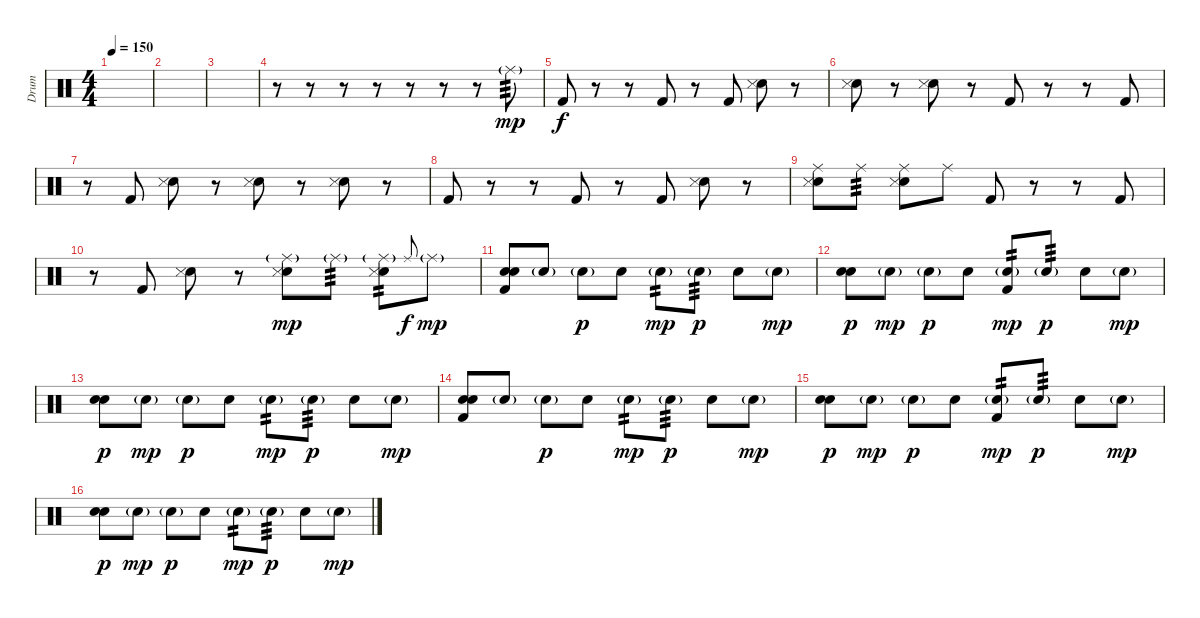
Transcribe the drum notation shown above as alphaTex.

\track ("Drum" "Drum") {instrument percussion}
\staff {score}
\articulation defaults
\ts (4 4)
\tempo 150
\clef neutral
\ks c
|
|
|
r.8 r.8 r.8 r.8 r.8 r.8 r.8 "Ride (middle)"{g}.8{tp 3 dy mp} |
"Kick (hit) 2".8{dy f} r.8 r.8 "Kick (hit) 2".8 r.8 "Kick (hit) 2".8 ("Hand Clap (hit)" "Snare (side stick) 3").8 r.8 |
("Hand Clap (hit)" "Snare (side stick) 3").8 r.8 ("Hand Clap (hit)" "Snare (side stick) 3").8 r.8 "Kick (hit) 2".8 r.8 r.8 "Kick (hit) 2".8 |
r.8 "Kick (hit) 2".8 ("Hand Clap (hit)" "Snare (side stick) 3").8 r.8 ("Hand Clap (hit)" "Snare (side stick) 3").8 r.8 ("Hand Clap (hit)" "Snare (side stick) 3").8 r.8 |
"Kick (hit) 2".8 r.8 r.8 "Kick (hit) 2".8 r.8 "Kick (hit) 2".8 ("Hand Clap (hit)" "Snare (side stick) 3").8 r.8 |
("Hand Clap (hit)" "Snare (side stick) 3" "Ride (middle)").8 "Ride (middle)".8{tp 3} ("Hand Clap (hit)" "Snare (side stick) 3" "Ride (middle)").8 "Ride (middle)".8 "Kick (hit) 2".8 r.8 r.8 "Kick (hit) 2".8 |
r.8 "Kick (hit) 2".8 ("Hand Clap (hit)" "Snare (side stick) 3").8 r.8 ("Hand Clap (hit)" "Snare (side stick) 3" "Ride (middle)"{g}).8{dy mp} "Ride (middle)"{g}.8{tp 3} ("Hand Clap (hit)" "Snare (side stick) 3" "Ride (middle)"{g}).8{tp 2} "Ride (middle)".8{gr onbeat dy f} "Ride (middle)"{g}.8{dy mp} |
("Electric Snare (hit)" "Snare (hit) 2" "Kick (hit) 2").8 "Snare (hit) 2"{g}.8 "Snare (hit) 2"{g}.8{dy p} "Snare (hit) 2".8 "Snare (hit) 2"{g}.8{tp 2 dy mp} "Snare (hit) 2"{g}.8{tp 3 dy p} "Snare (hit) 2".8 "Snare (hit) 2"{g}.8{dy mp} |
("Electric Snare (hit)" "Snare (hit) 2").8{dy p} "Snare (hit) 2"{g}.8{dy mp} "Snare (hit) 2"{g}.8{dy p} "Snare (hit) 2".8 ("Kick (hit) 2" "Snare (hit) 2"{g}).8{tp 2 dy mp} "Snare (hit) 2"{g}.8{tp 3 dy p} "Snare (hit) 2".8 "Snare (hit) 2"{g}.8{dy mp} |
("Electric Snare (hit)" "Snare (hit) 2").8{dy p} "Snare (hit) 2"{g}.8{dy mp} "Snare (hit) 2"{g}.8{dy p} "Snare (hit) 2".8 "Snare (hit) 2"{g}.8{tp 2 dy mp} "Snare (hit) 2"{g}.8{tp 3 dy p} "Snare (hit) 2".8 "Snare (hit) 2"{g}.8{dy mp} |
("Electric Snare (hit)" "Snare (hit) 2" "Kick (hit) 2").8 "Snare (hit) 2"{g}.8 "Snare (hit) 2"{g}.8{dy p} "Snare (hit) 2".8 "Snare (hit) 2"{g}.8{tp 2 dy mp} "Snare (hit) 2"{g}.8{tp 3 dy p} "Snare (hit) 2".8 "Snare (hit) 2"{g}.8{dy mp} |
("Electric Snare (hit)" "Snare (hit) 2").8{dy p} "Snare (hit) 2"{g}.8{dy mp} "Snare (hit) 2"{g}.8{dy p} "Snare (hit) 2".8 ("Kick (hit) 2" "Snare (hit) 2"{g}).8{tp 2 dy mp} "Snare (hit) 2"{g}.8{tp 3 dy p} "Snare (hit) 2".8 "Snare (hit) 2"{g}.8{dy mp} |
("Electric Snare (hit)" "Snare (hit) 2").8{dy p} "Snare (hit) 2"{g}.8{dy mp} "Snare (hit) 2"{g}.8{dy p} "Snare (hit) 2".8 "Snare (hit) 2"{g}.8{tp 2 dy mp} "Snare (hit) 2"{g}.8{tp 3 dy p} "Snare (hit) 2".8 "Snare (hit) 2"{g}.8{dy mp}
